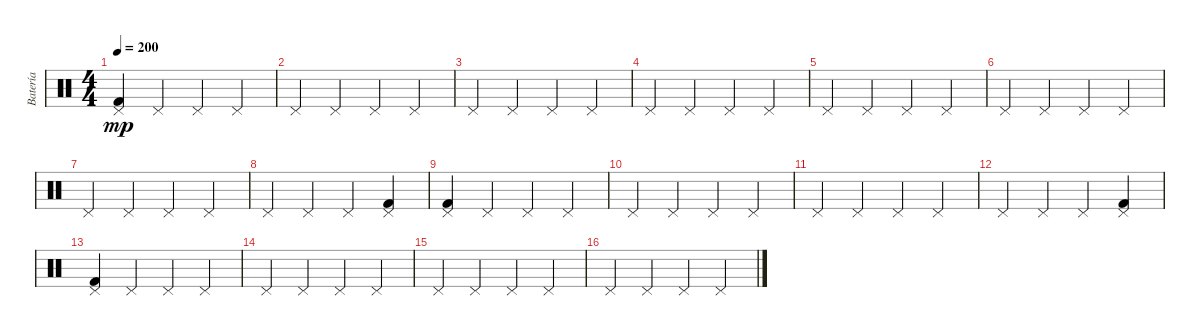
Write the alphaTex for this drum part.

\track ("Batería" "Batería") {instrument percussion}
\staff {score}
\articulation defaults
\ts (4 4)
\tempo 200
\clef neutral
\ks c
("Pedal Hi-Hat (hit)" "Kick (hit) 2").4{dy mp} "Pedal Hi-Hat (hit)".4 "Pedal Hi-Hat (hit)".4 "Pedal Hi-Hat (hit)".4 |
"Pedal Hi-Hat (hit)".4 "Pedal Hi-Hat (hit)".4 "Pedal Hi-Hat (hit)".4 "Pedal Hi-Hat (hit)".4 |
"Pedal Hi-Hat (hit)".4 "Pedal Hi-Hat (hit)".4 "Pedal Hi-Hat (hit)".4 "Pedal Hi-Hat (hit)".4 |
"Pedal Hi-Hat (hit)".4 "Pedal Hi-Hat (hit)".4 "Pedal Hi-Hat (hit)".4 "Pedal Hi-Hat (hit)".4 |
"Pedal Hi-Hat (hit)".4 "Pedal Hi-Hat (hit)".4 "Pedal Hi-Hat (hit)".4 "Pedal Hi-Hat (hit)".4 |
"Pedal Hi-Hat (hit)".4 "Pedal Hi-Hat (hit)".4 "Pedal Hi-Hat (hit)".4 "Pedal Hi-Hat (hit)".4 |
"Pedal Hi-Hat (hit)".4 "Pedal Hi-Hat (hit)".4 "Pedal Hi-Hat (hit)".4 "Pedal Hi-Hat (hit)".4 |
"Pedal Hi-Hat (hit)".4 "Pedal Hi-Hat (hit)".4 "Pedal Hi-Hat (hit)".4 ("Pedal Hi-Hat (hit)" "Kick (hit) 2").4 |
("Pedal Hi-Hat (hit)" "Kick (hit) 2").4 "Pedal Hi-Hat (hit)".4 "Pedal Hi-Hat (hit)".4 "Pedal Hi-Hat (hit)".4 |
"Pedal Hi-Hat (hit)".4 "Pedal Hi-Hat (hit)".4 "Pedal Hi-Hat (hit)".4 "Pedal Hi-Hat (hit)".4 |
"Pedal Hi-Hat (hit)".4 "Pedal Hi-Hat (hit)".4 "Pedal Hi-Hat (hit)".4 "Pedal Hi-Hat (hit)".4 |
"Pedal Hi-Hat (hit)".4 "Pedal Hi-Hat (hit)".4 "Pedal Hi-Hat (hit)".4 ("Pedal Hi-Hat (hit)" "Kick (hit) 2").4 |
("Pedal Hi-Hat (hit)" "Kick (hit) 2").4 "Pedal Hi-Hat (hit)".4 "Pedal Hi-Hat (hit)".4 "Pedal Hi-Hat (hit)".4 |
"Pedal Hi-Hat (hit)".4 "Pedal Hi-Hat (hit)".4 "Pedal Hi-Hat (hit)".4 "Pedal Hi-Hat (hit)".4 |
"Pedal Hi-Hat (hit)".4 "Pedal Hi-Hat (hit)".4 "Pedal Hi-Hat (hit)".4 "Pedal Hi-Hat (hit)".4 |
"Pedal Hi-Hat (hit)".4 "Pedal Hi-Hat (hit)".4 "Pedal Hi-Hat (hit)".4 "Pedal Hi-Hat (hit)".4
